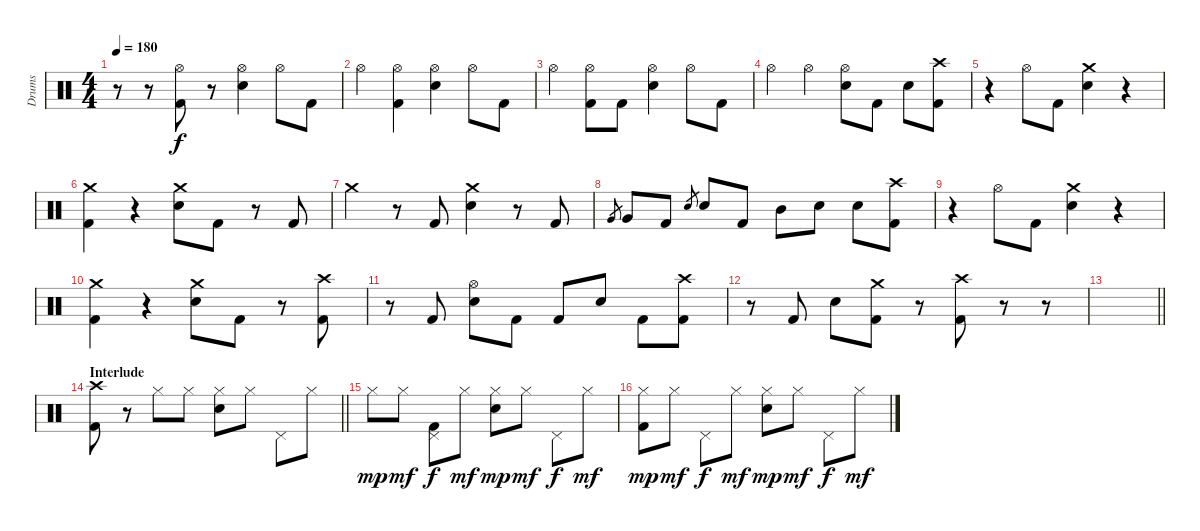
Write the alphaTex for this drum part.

\track ("Drums" "Drums") {instrument percussion}
\staff {score}
\articulation defaults
\ts (4 4)
\tempo 180
\clef neutral
\ks c
r.8{dy f} r.8 ("Hi-Hat (open)" "Kick (hit) 2").8 r.8 ("Hi-Hat (open)" "Electric Snare (hit)").4 "Hi-Hat (open)".8 "Kick (hit) 2".8 |
"Hi-Hat (open)".4 ("Hi-Hat (open)" "Kick (hit) 2").4 ("Hi-Hat (open)" "Electric Snare (hit)").4 "Hi-Hat (open)".8 "Kick (hit) 2".8 |
"Hi-Hat (open)".4 ("Hi-Hat (open)" "Kick (hit) 2").8 "Kick (hit) 2".8 ("Hi-Hat (open)" "Electric Snare (hit)").4 "Hi-Hat (open)".8 "Kick (hit) 2".8 |
"Hi-Hat (open)".4 "Hi-Hat (open)".4 ("Hi-Hat (open)" "Electric Snare (hit)").8 "Kick (hit) 2".8 "Electric Snare (hit)".8 ("Crash high (hit)" "Kick (hit) 2").8 |
r.4 "Hi-Hat (open)".8 "Kick (hit) 2".8 ("Crash medium (hit)" "Electric Snare (hit)").4 r.4 |
("Crash medium (hit)" "Kick (hit) 2").4 r.4 ("Crash medium (hit)" "Electric Snare (hit)").8 "Kick (hit) 2".8 r.8 "Kick (hit) 2".8 |
"Crash medium (hit)".4 r.8 "Kick (hit) 2".8 ("Crash medium (hit)" "Electric Snare (hit)").4 r.8 "Kick (hit) 2".8 |
"Very Low Tom (hit)".8{gr} "Very Low Tom (hit)".8 "Kick (hit) 2".8 "Electric Snare (hit)".8{gr} "Electric Snare (hit)".8 "Kick (hit) 2".8 "Mid Tom (hit)".8 "Electric Snare (hit)".8 "Electric Snare (hit)".8 ("Crash high (hit)" "Kick (hit) 2").8 |
r.4 "Hi-Hat (open)".8 "Kick (hit) 2".8 ("Crash medium (hit)" "Electric Snare (hit)").4 r.4 |
("Crash medium (hit)" "Kick (hit) 2").4 r.4 ("Crash medium (hit)" "Electric Snare (hit)").8 "Kick (hit) 2".8 r.8 ("Crash high (hit)" "Kick (hit) 2").8 |
r.8 "Kick (hit) 2".8 ("Hi-Hat (open)" "Electric Snare (hit)").8 "Kick (hit) 2".8 "Kick (hit) 2".8 "Electric Snare (hit)".8 "Kick (hit) 2".8 ("Crash high (hit)" "Kick (hit) 2").8 |
r.8 "Kick (hit) 2".8 "Electric Snare (hit)".8 ("Crash medium (hit)" "Kick (hit) 2").8 r.8 ("Crash high (hit)" "Kick (hit) 2").8 r.8 r.8 |
\barLineRight lightlight
|
\section ("" "Interlude")
\barLineRight lightlight
("Kick (hit) 2" "Crash high (hit)").8{volume 6} r.8 "Hi-Hat (closed)".8 "Hi-Hat (closed)".8 ("Snare (hit) 2" "Hi-Hat (closed)").8 "Hi-Hat (closed)".8 "Pedal Hi-Hat (hit)".8 "Hi-Hat (closed)".8 |
"Hi-Hat (closed)".8{dy mp} "Hi-Hat (closed)".8{dy mf} ("Kick (hit) 2" "Pedal Hi-Hat (hit)").8{dy f} "Hi-Hat (closed)".8{dy mf} ("Snare (hit) 2" "Hi-Hat (closed)").8{dy mp} "Hi-Hat (closed)".8{dy mf} "Pedal Hi-Hat (hit)".8{dy f} "Hi-Hat (closed)".8{dy mf} |
("Kick (hit) 2" "Hi-Hat (closed)").8{dy mp} "Hi-Hat (closed)".8{dy mf} "Pedal Hi-Hat (hit)".8{dy f} "Hi-Hat (closed)".8{dy mf} ("Snare (hit) 2" "Hi-Hat (closed)").8{dy mp} "Hi-Hat (closed)".8{dy mf} "Pedal Hi-Hat (hit)".8{dy f} "Hi-Hat (closed)".8{dy mf}
